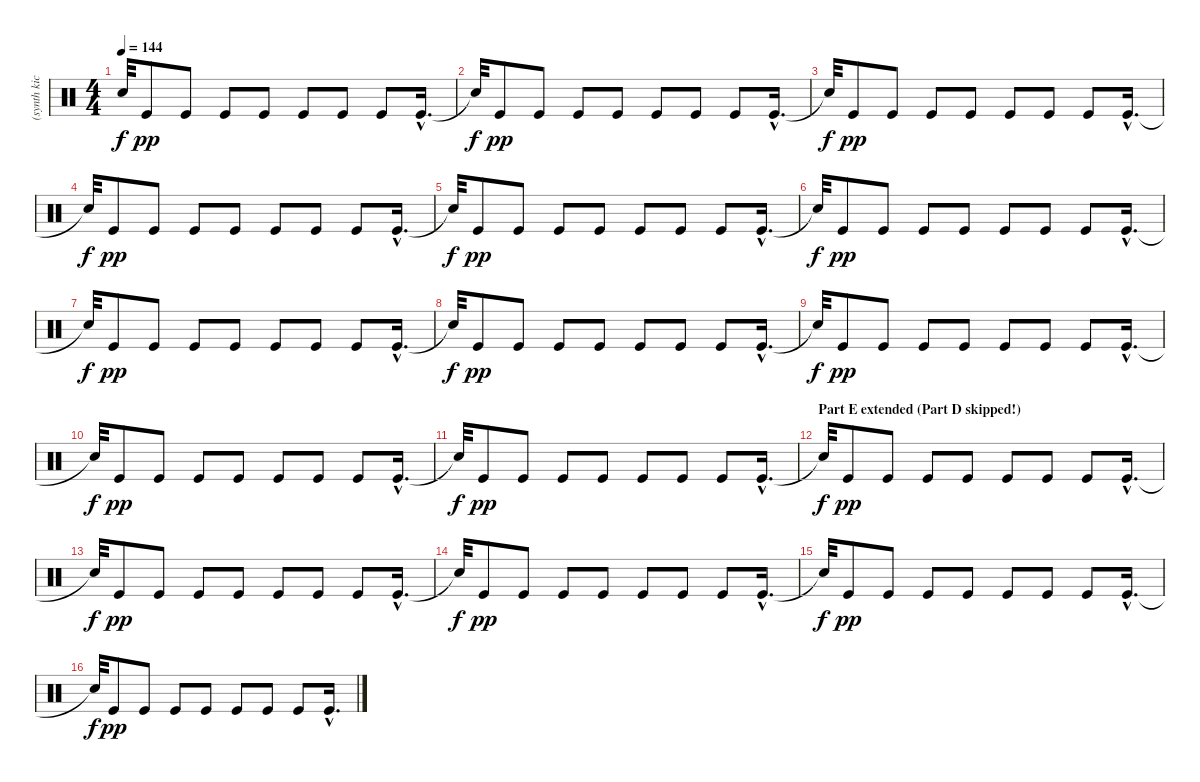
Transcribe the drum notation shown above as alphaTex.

\track ("(synth kick loop reverb)" "(synth kic") {instrument percussion}
\staff {score}
\articulation defaults
\ts (4 4)
\tempo 144
\clef neutral
\ks c "Snare (hit)"{t}.32{dy f} "Kick (hit)".8{dy pp} "Kick (hit)".8 "Kick (hit)".8 "Kick (hit)".8 "Kick (hit)".8 "Kick (hit)".8 "Kick (hit)".8 "Kick (hit)"{hac}.16{d}
|
"Snare (hit)"{t}.32{dy f} "Kick (hit)".8{dy pp} "Kick (hit)".8 "Kick (hit)".8 "Kick (hit)".8 "Kick (hit)".8 "Kick (hit)".8 "Kick (hit)".8 "Kick (hit)"{hac}.16{d} |
"Snare (hit)"{t}.32{dy f} "Kick (hit)".8{dy pp} "Kick (hit)".8 "Kick (hit)".8 "Kick (hit)".8 "Kick (hit)".8 "Kick (hit)".8 "Kick (hit)".8 "Kick (hit)"{hac}.16{d} |
"Snare (hit)"{t}.32{dy f} "Kick (hit)".8{dy pp} "Kick (hit)".8 "Kick (hit)".8 "Kick (hit)".8 "Kick (hit)".8 "Kick (hit)".8 "Kick (hit)".8 "Kick (hit)"{hac}.16{d} |
"Snare (hit)"{t}.32{dy f} "Kick (hit)".8{dy pp} "Kick (hit)".8 "Kick (hit)".8 "Kick (hit)".8 "Kick (hit)".8 "Kick (hit)".8 "Kick (hit)".8 "Kick (hit)"{hac}.16{d} |
"Snare (hit)"{t}.32{dy f} "Kick (hit)".8{dy pp} "Kick (hit)".8 "Kick (hit)".8 "Kick (hit)".8 "Kick (hit)".8 "Kick (hit)".8 "Kick (hit)".8 "Kick (hit)"{hac}.16{d} |
"Snare (hit)"{t}.32{dy f} "Kick (hit)".8{dy pp} "Kick (hit)".8 "Kick (hit)".8 "Kick (hit)".8 "Kick (hit)".8 "Kick (hit)".8 "Kick (hit)".8 "Kick (hit)"{hac}.16{d} |
"Snare (hit)"{t}.32{dy f} "Kick (hit)".8{dy pp} "Kick (hit)".8 "Kick (hit)".8 "Kick (hit)".8 "Kick (hit)".8 "Kick (hit)".8 "Kick (hit)".8 "Kick (hit)"{hac}.16{d} |
"Snare (hit)"{t}.32{dy f} "Kick (hit)".8{dy pp} "Kick (hit)".8 "Kick (hit)".8 "Kick (hit)".8 "Kick (hit)".8 "Kick (hit)".8 "Kick (hit)".8 "Kick (hit)"{hac}.16{d} |
"Snare (hit)"{t}.32{dy f} "Kick (hit)".8{dy pp} "Kick (hit)".8 "Kick (hit)".8 "Kick (hit)".8 "Kick (hit)".8 "Kick (hit)".8 "Kick (hit)".8 "Kick (hit)"{hac}.16{d} |
"Snare (hit)"{t}.32{dy f} "Kick (hit)".8{dy pp} "Kick (hit)".8 "Kick (hit)".8 "Kick (hit)".8 "Kick (hit)".8 "Kick (hit)".8 "Kick (hit)".8 "Kick (hit)"{hac}.16{d} |
\section ("" "Part E extended (Part D skipped!)")
"Snare (hit)"{t}.32{dy f} "Kick (hit)".8{dy pp} "Kick (hit)".8 "Kick (hit)".8 "Kick (hit)".8 "Kick (hit)".8 "Kick (hit)".8 "Kick (hit)".8 "Kick (hit)"{hac}.16{d} |
"Snare (hit)"{t}.32{dy f} "Kick (hit)".8{dy pp} "Kick (hit)".8 "Kick (hit)".8 "Kick (hit)".8 "Kick (hit)".8 "Kick (hit)".8 "Kick (hit)".8 "Kick (hit)"{hac}.16{d} |
"Snare (hit)"{t}.32{dy f} "Kick (hit)".8{dy pp} "Kick (hit)".8 "Kick (hit)".8 "Kick (hit)".8 "Kick (hit)".8 "Kick (hit)".8 "Kick (hit)".8 "Kick (hit)"{hac}.16{d} |
"Snare (hit)"{t}.32{dy f} "Kick (hit)".8{dy pp} "Kick (hit)".8 "Kick (hit)".8 "Kick (hit)".8 "Kick (hit)".8 "Kick (hit)".8 "Kick (hit)".8 "Kick (hit)"{hac}.16{d} |
"Snare (hit)"{t}.32{dy f} "Kick (hit)".8{dy pp} "Kick (hit)".8 "Kick (hit)".8 "Kick (hit)".8 "Kick (hit)".8 "Kick (hit)".8 "Kick (hit)".8 "Kick (hit)"{hac}.16{d}
